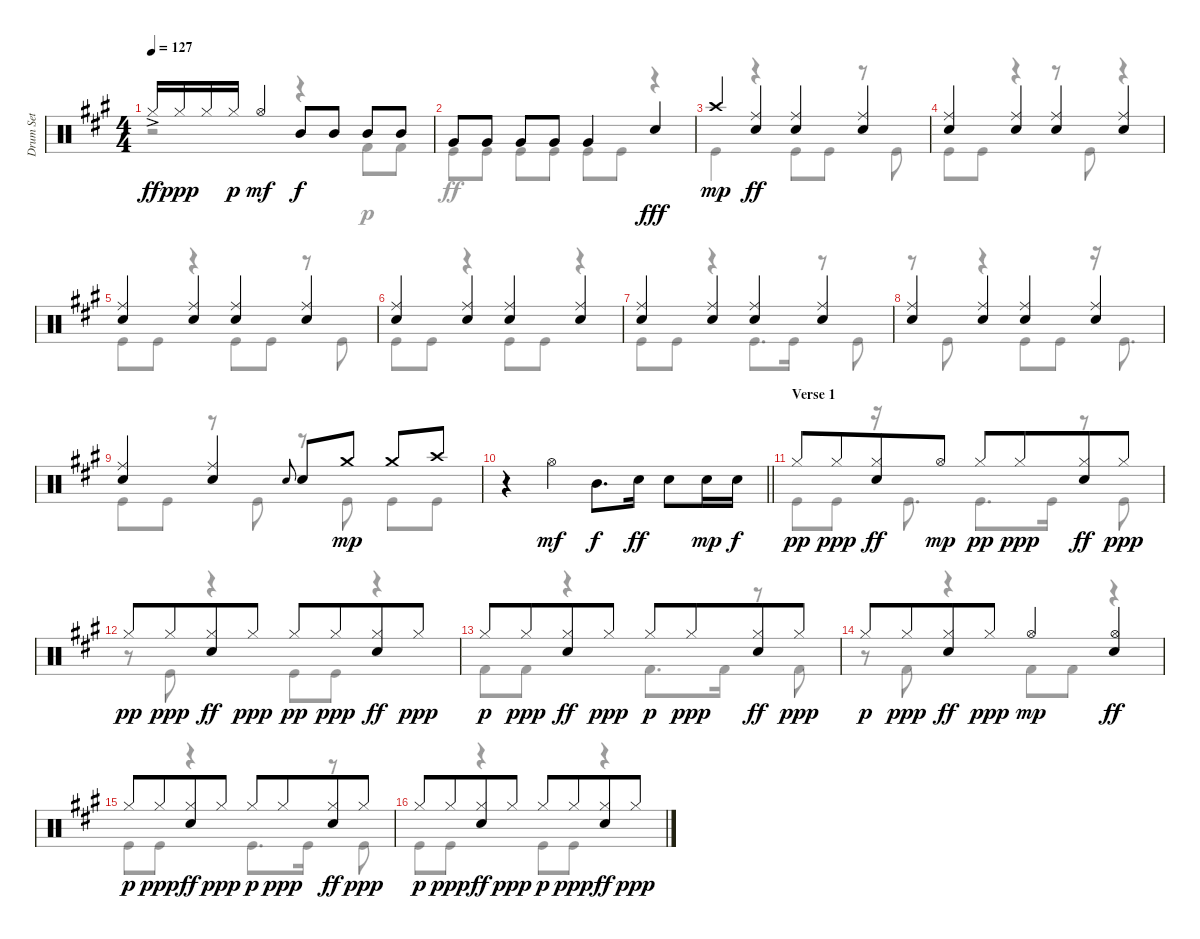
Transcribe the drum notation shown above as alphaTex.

\track ("Drum Set" "Drum Set") {instrument percussion}
\staff {score}
\articulation defaults
\voice
\ts (4 4)
\tempo 127
\clef neutral
\ks a "Hi-Hat (closed)"{ac}.16{dy ff beam Up} "Hi-Hat (closed)".16{dy ppp beam Up} "Hi-Hat (closed)".16{beam Up} "Hi-Hat (closed)".16{dy p beam Up} "Hi-Hat (open)".4{dy mf} "Mid Tom (hit)".8{dy f} "Mid Tom (hit)".8 "Mid Tom (hit)".8 "Mid Tom (hit)".8
|
"Very Low Tom (hit)".8 "Very Low Tom (hit)".8 "Very Low Tom (hit)".8 "Very Low Tom (hit)".8 "Very Low Tom (hit)".4 "Electric Snare (hit)".4{dy fff} |
"Crash high (hit)".4{dy mp} ("Ride (middle)" "Electric Snare (hit)").4{dy ff} ("Ride (middle)" "Electric Snare (hit)").4 ("Ride (middle)" "Electric Snare (hit)").4 |
("Ride (middle)" "Electric Snare (hit)").4 ("Ride (middle)" "Electric Snare (hit)").4 ("Ride (middle)" "Electric Snare (hit)").4 ("Ride (middle)" "Electric Snare (hit)").4 |
("Ride (middle)" "Electric Snare (hit)").4 ("Ride (middle)" "Electric Snare (hit)").4 ("Ride (middle)" "Electric Snare (hit)").4 ("Ride (middle)" "Electric Snare (hit)").4 |
("Ride (middle)" "Electric Snare (hit)").4 ("Ride (middle)" "Electric Snare (hit)").4 ("Ride (middle)" "Electric Snare (hit)").4 ("Ride (middle)" "Electric Snare (hit)").4 |
("Ride (middle)" "Electric Snare (hit)").4 ("Ride (middle)" "Electric Snare (hit)").4 ("Ride (middle)" "Electric Snare (hit)").4 ("Ride (middle)" "Electric Snare (hit)").4 |
("Ride (middle)" "Electric Snare (hit)").4 ("Ride (middle)" "Electric Snare (hit)").4 ("Ride (middle)" "Electric Snare (hit)").4 ("Ride (middle)" "Electric Snare (hit)").4 |
("Ride (middle)" "Electric Snare (hit)").4 ("Ride (middle)" "Electric Snare (hit)").4 "Electric Snare (hit)".8{gr onbeat} "Electric Snare (hit)".8 "Crash medium (hit)".8{dy mp} "Crash medium (hit)".8 "Crash high (hit)".8 |
\barLineRight lightlight
r.4 "Hi-Hat (open)".4{dy mf} "Mid Tom (hit)".8{d dy f} "Electric Snare (hit)".16{dy ff} "Electric Snare (hit)".8 "Electric Snare (hit)".16{dy mp} "Electric Snare (hit)".16{dy f} |
\section ("" "Verse 1")
"Hi-Hat (closed)".8{dy pp} "Hi-Hat (closed)".8{dy ppp beam merge} ("Hi-Hat (closed)" "Electric Snare (hit)").8{dy ff} "Hi-Hat (open)".8{dy mp} "Hi-Hat (closed)".8{dy pp} "Hi-Hat (closed)".8{dy ppp beam merge} ("Hi-Hat (closed)" "Electric Snare (hit)").8{dy ff} "Hi-Hat (closed)".8{dy ppp} |
"Hi-Hat (closed)".8{dy pp} "Hi-Hat (closed)".8{dy ppp beam merge} ("Hi-Hat (closed)" "Electric Snare (hit)").8{dy ff} "Hi-Hat (closed)".8{dy ppp} "Hi-Hat (closed)".8{dy pp} "Hi-Hat (closed)".8{dy ppp beam merge} ("Hi-Hat (closed)" "Electric Snare (hit)").8{dy ff} "Hi-Hat (closed)".8{dy ppp} |
"Hi-Hat (closed)".8{dy p} "Hi-Hat (closed)".8{dy ppp beam merge} ("Hi-Hat (closed)" "Electric Snare (hit)").8{dy ff} "Hi-Hat (closed)".8{dy ppp} "Hi-Hat (closed)".8{dy p} "Hi-Hat (closed)".8{dy ppp beam merge} ("Hi-Hat (closed)" "Electric Snare (hit)").8{dy ff} "Hi-Hat (closed)".8{dy ppp} |
"Hi-Hat (closed)".8{dy p} "Hi-Hat (closed)".8{dy ppp beam merge} ("Hi-Hat (closed)" "Electric Snare (hit)").8{dy ff} "Hi-Hat (closed)".8{dy ppp} "Hi-Hat (open)".4{dy mp} ("Hi-Hat (open)" "Electric Snare (hit)").4{dy ff} |
"Hi-Hat (closed)".8{dy p} "Hi-Hat (closed)".8{dy ppp beam merge} ("Hi-Hat (closed)" "Electric Snare (hit)").8{dy ff} "Hi-Hat (closed)".8{dy ppp} "Hi-Hat (closed)".8{dy p} "Hi-Hat (closed)".8{dy ppp beam merge} ("Hi-Hat (closed)" "Electric Snare (hit)").8{dy ff} "Hi-Hat (closed)".8{dy ppp} |
"Hi-Hat (closed)".8{dy p} "Hi-Hat (closed)".8{dy ppp beam merge} ("Hi-Hat (closed)" "Electric Snare (hit)").8{dy ff} "Hi-Hat (closed)".8{dy ppp} "Hi-Hat (closed)".8{dy p} "Hi-Hat (closed)".8{dy ppp beam merge} ("Hi-Hat (closed)" "Electric Snare (hit)").8{dy ff} "Hi-Hat (closed)".8{dy ppp}
\voice
\clef neutral
\ottava regular
\simile none
\ks a
r.2{dy p} r.4 "Kick (hit) 2".8 "Kick (hit) 2".8 |
"Kick (hit)".8{dy ff} "Kick (hit)".8 "Kick (hit)".8 "Kick (hit)".8 "Kick (hit)".8 "Kick (hit)".8 r.4 |
"Kick (hit)".4 r.4 "Kick (hit)".8 "Kick (hit)".8 r.8 "Kick (hit)".8 |
"Kick (hit)".8 "Kick (hit)".8 r.4 r.8 "Kick (hit)".8 r.4 |
"Kick (hit)".8 "Kick (hit)".8 r.4 "Kick (hit)".8 "Kick (hit)".8 r.8 "Kick (hit)".8 |
"Kick (hit)".8 "Kick (hit)".8 r.4 "Kick (hit)".8 "Kick (hit)".8 r.4 |
"Kick (hit)".8 "Kick (hit)".8 r.4 "Kick (hit)".8{d} "Kick (hit)".16 r.8 "Kick (hit)".8 |
r.8 "Kick (hit)".8 r.4 "Kick (hit)".8 "Kick (hit)".8 r.16 "Kick (hit)".8{d} |
"Kick (hit)".8 "Kick (hit)".8 r.8 "Kick (hit)".8 r.8 "Kick (hit)".8 "Kick (hit)".8 "Kick (hit)".8 |
\barLineRight lightlight
|
"Kick (hit)".8 "Kick (hit)".8 r.16 "Kick (hit)".8{d} "Kick (hit)".8{d} "Kick (hit)".16 r.8 "Kick (hit)".8 |
r.8 "Kick (hit)".8 r.4 "Kick (hit)".8 "Kick (hit)".8 r.4 |
"Kick (hit) 2".8 "Kick (hit) 2".8 r.4 "Kick (hit) 2".8{d} "Kick (hit) 2".16 r.8 "Kick (hit) 2".8 |
r.8 "Kick (hit) 2".8 r.4 "Kick (hit) 2".8 "Kick (hit) 2".8 r.4 |
"Kick (hit)".8 "Kick (hit)".8 r.4 "Kick (hit)".8{d} "Kick (hit)".16 r.8 "Kick (hit)".8 |
"Kick (hit)".8 "Kick (hit)".8 r.4 "Kick (hit)".8 "Kick (hit)".8 r.4
